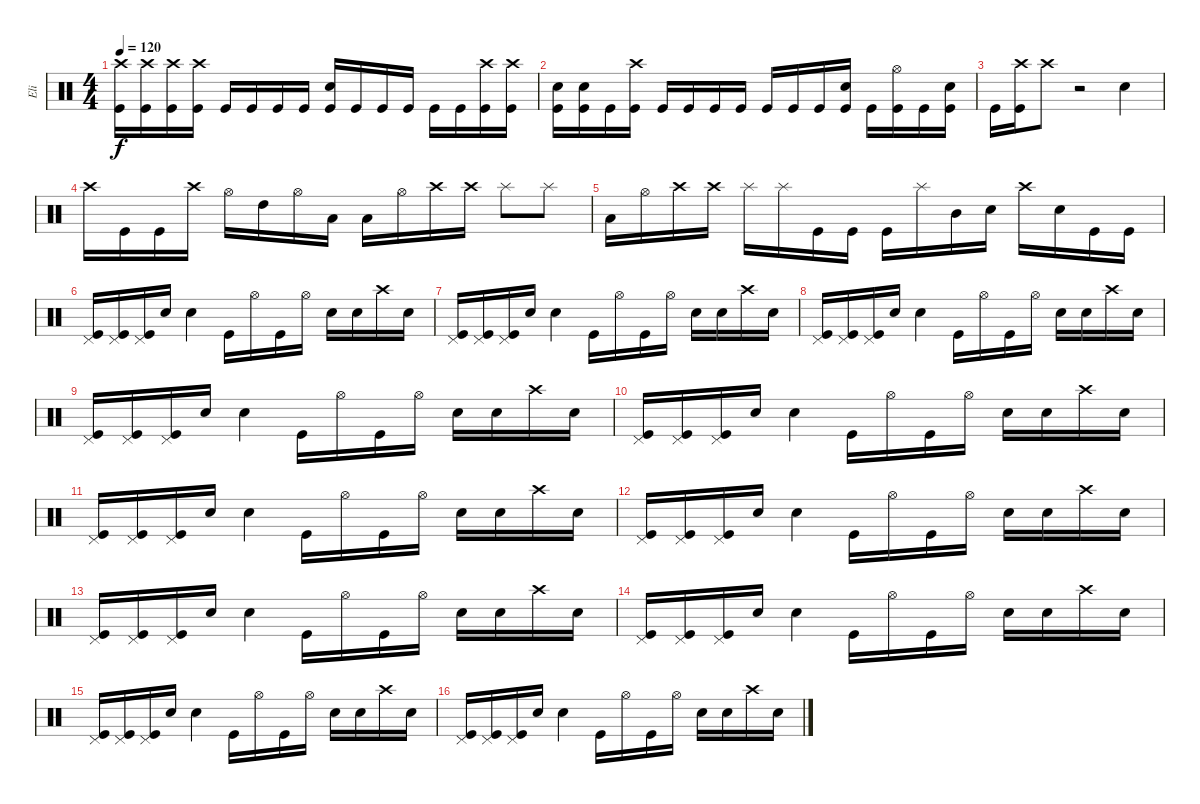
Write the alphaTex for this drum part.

\track ("Eli" "Eli") {instrument percussion}
\staff {score}
\articulation defaults
\ts (4 4)
\tempo 120
\clef neutral
\ks c
("Crash high (hit)" "Kick (hit)").16{dy f} ("Crash high (hit)" "Kick (hit)").16 ("Crash high (hit)" "Kick (hit)").16 ("Crash high (hit)" "Kick (hit)").16 "Kick (hit)".16 "Kick (hit)".16 "Kick (hit)".16 "Kick (hit)".16 ("Electric Snare (hit)" "Kick (hit)").16 "Kick (hit)".16 "Kick (hit)".16 "Kick (hit)".16 "Kick (hit)".16 "Kick (hit)".16 ("Crash high (hit)" "Kick (hit)").16 ("Crash high (hit)" "Kick (hit)").16 |
("Electric Snare (hit)" "Kick (hit)").16 ("Electric Snare (hit)" "Kick (hit)").16 "Kick (hit)".16 ("Crash high (hit)" "Kick (hit)").16 "Kick (hit)".16 "Kick (hit)".16 "Kick (hit)".16 "Kick (hit)".16 "Kick (hit)".16 "Kick (hit)".16 "Kick (hit)".16 ("Electric Snare (hit)" "Kick (hit)").16 "Kick (hit)".16 ("Hi-Hat (open)" "Kick (hit)").16 "Kick (hit)".16 ("Electric Snare (hit)" "Kick (hit)").16 |
"Kick (hit)".16 ("Crash high (hit)" "Kick (hit)").16 "Crash high (hit)".8 r.2 "Electric Snare (hit)".4 |
"Crash high (hit)".16 "Kick (hit)".16 "Kick (hit)".16 "Crash high (hit)".16 "Hi-Hat (open)".16 "High Tom (hit)".16 "Hi-Hat (open)".16 "Low Tom (hit)".16 "Low Tom (hit)".16 "Hi-Hat (open)".16 "Crash high (hit)".16 "Crash high (hit)".16 "Splash (hit)".8 "Splash (hit)".8 |
"Low Tom (hit)".16 "Hi-Hat (open)".16 "Crash high (hit)".16 "Crash high (hit)".16 "Splash (hit)".16 "Splash (hit)".16 "Kick (hit)".16 "Kick (hit)".16 "Kick (hit)".16 "Splash (hit)".16 "Mid Tom (hit)".16 "Electric Snare (hit)".16 "Crash high (hit)".16 "Electric Snare (hit)".16 "Kick (hit)".16 "Kick (hit)".16 |
("Pedal Hi-Hat (hit)" "Kick (hit)").16 ("Pedal Hi-Hat (hit)" "Kick (hit)").16 ("Pedal Hi-Hat (hit)" "Kick (hit)").16 "Electric Snare (hit)".16 "Electric Snare (hit)".4 "Kick (hit)".16 "Hi-Hat (open)".16 "Kick (hit)".16 "Hi-Hat (open)".16 "Electric Snare (hit)".16 "Electric Snare (hit)".16 "Crash high (hit)".16 "Electric Snare (hit)".16 |
("Pedal Hi-Hat (hit)" "Kick (hit)").16 ("Pedal Hi-Hat (hit)" "Kick (hit)").16 ("Pedal Hi-Hat (hit)" "Kick (hit)").16 "Electric Snare (hit)".16 "Electric Snare (hit)".4 "Kick (hit)".16 "Hi-Hat (open)".16 "Kick (hit)".16 "Hi-Hat (open)".16 "Electric Snare (hit)".16 "Electric Snare (hit)".16 "Crash high (hit)".16 "Electric Snare (hit)".16 |
("Pedal Hi-Hat (hit)" "Kick (hit)").16 ("Pedal Hi-Hat (hit)" "Kick (hit)").16 ("Pedal Hi-Hat (hit)" "Kick (hit)").16 "Electric Snare (hit)".16 "Electric Snare (hit)".4 "Kick (hit)".16 "Hi-Hat (open)".16 "Kick (hit)".16 "Hi-Hat (open)".16 "Electric Snare (hit)".16 "Electric Snare (hit)".16 "Crash high (hit)".16 "Electric Snare (hit)".16 |
("Pedal Hi-Hat (hit)" "Kick (hit)").16 ("Pedal Hi-Hat (hit)" "Kick (hit)").16 ("Pedal Hi-Hat (hit)" "Kick (hit)").16 "Electric Snare (hit)".16 "Electric Snare (hit)".4 "Kick (hit)".16 "Hi-Hat (open)".16 "Kick (hit)".16 "Hi-Hat (open)".16 "Electric Snare (hit)".16 "Electric Snare (hit)".16 "Crash high (hit)".16 "Electric Snare (hit)".16 |
("Pedal Hi-Hat (hit)" "Kick (hit)").16 ("Pedal Hi-Hat (hit)" "Kick (hit)").16 ("Pedal Hi-Hat (hit)" "Kick (hit)").16 "Electric Snare (hit)".16 "Electric Snare (hit)".4 "Kick (hit)".16 "Hi-Hat (open)".16 "Kick (hit)".16 "Hi-Hat (open)".16 "Electric Snare (hit)".16 "Electric Snare (hit)".16 "Crash high (hit)".16 "Electric Snare (hit)".16 |
("Pedal Hi-Hat (hit)" "Kick (hit)").16 ("Pedal Hi-Hat (hit)" "Kick (hit)").16 ("Pedal Hi-Hat (hit)" "Kick (hit)").16 "Electric Snare (hit)".16 "Electric Snare (hit)".4 "Kick (hit)".16 "Hi-Hat (open)".16 "Kick (hit)".16 "Hi-Hat (open)".16 "Electric Snare (hit)".16 "Electric Snare (hit)".16 "Crash high (hit)".16 "Electric Snare (hit)".16 |
("Pedal Hi-Hat (hit)" "Kick (hit)").16 ("Pedal Hi-Hat (hit)" "Kick (hit)").16 ("Pedal Hi-Hat (hit)" "Kick (hit)").16 "Electric Snare (hit)".16 "Electric Snare (hit)".4 "Kick (hit)".16 "Hi-Hat (open)".16 "Kick (hit)".16 "Hi-Hat (open)".16 "Electric Snare (hit)".16 "Electric Snare (hit)".16 "Crash high (hit)".16 "Electric Snare (hit)".16 |
("Pedal Hi-Hat (hit)" "Kick (hit)").16 ("Pedal Hi-Hat (hit)" "Kick (hit)").16 ("Pedal Hi-Hat (hit)" "Kick (hit)").16 "Electric Snare (hit)".16 "Electric Snare (hit)".4 "Kick (hit)".16 "Hi-Hat (open)".16 "Kick (hit)".16 "Hi-Hat (open)".16 "Electric Snare (hit)".16 "Electric Snare (hit)".16 "Crash high (hit)".16 "Electric Snare (hit)".16 |
("Pedal Hi-Hat (hit)" "Kick (hit)").16 ("Pedal Hi-Hat (hit)" "Kick (hit)").16 ("Pedal Hi-Hat (hit)" "Kick (hit)").16 "Electric Snare (hit)".16 "Electric Snare (hit)".4 "Kick (hit)".16 "Hi-Hat (open)".16 "Kick (hit)".16 "Hi-Hat (open)".16 "Electric Snare (hit)".16 "Electric Snare (hit)".16 "Crash high (hit)".16 "Electric Snare (hit)".16 |
("Pedal Hi-Hat (hit)" "Kick (hit)").16 ("Pedal Hi-Hat (hit)" "Kick (hit)").16 ("Pedal Hi-Hat (hit)" "Kick (hit)").16 "Electric Snare (hit)".16 "Electric Snare (hit)".4 "Kick (hit)".16 "Hi-Hat (open)".16 "Kick (hit)".16 "Hi-Hat (open)".16 "Electric Snare (hit)".16 "Electric Snare (hit)".16 "Crash high (hit)".16 "Electric Snare (hit)".16 |
("Pedal Hi-Hat (hit)" "Kick (hit)").16 ("Pedal Hi-Hat (hit)" "Kick (hit)").16 ("Pedal Hi-Hat (hit)" "Kick (hit)").16 "Electric Snare (hit)".16 "Electric Snare (hit)".4 "Kick (hit)".16 "Hi-Hat (open)".16 "Kick (hit)".16 "Hi-Hat (open)".16 "Electric Snare (hit)".16 "Electric Snare (hit)".16 "Crash high (hit)".16 "Electric Snare (hit)".16
